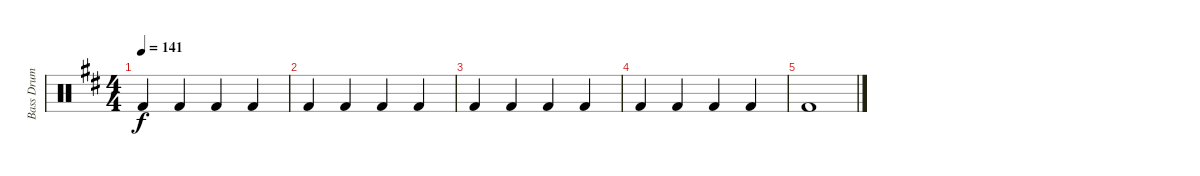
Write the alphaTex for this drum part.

\track ("Bass Drum" "Bass Drum") {instrument percussion}
\staff {score}
\articulation defaults
\ts (4 4)
\tempo 141
\clef neutral
\ks d "Kick (hit) 2".4{dy f} "Kick (hit) 2".4 "Kick (hit) 2".4 "Kick (hit) 2".4
|
"Kick (hit) 2".4 "Kick (hit) 2".4 "Kick (hit) 2".4 "Kick (hit) 2".4 |
"Kick (hit) 2".4 "Kick (hit) 2".4 "Kick (hit) 2".4 "Kick (hit) 2".4 |
"Kick (hit) 2".4 "Kick (hit) 2".4 "Kick (hit) 2".4 "Kick (hit) 2".4 |
"Kick (hit) 2".1
